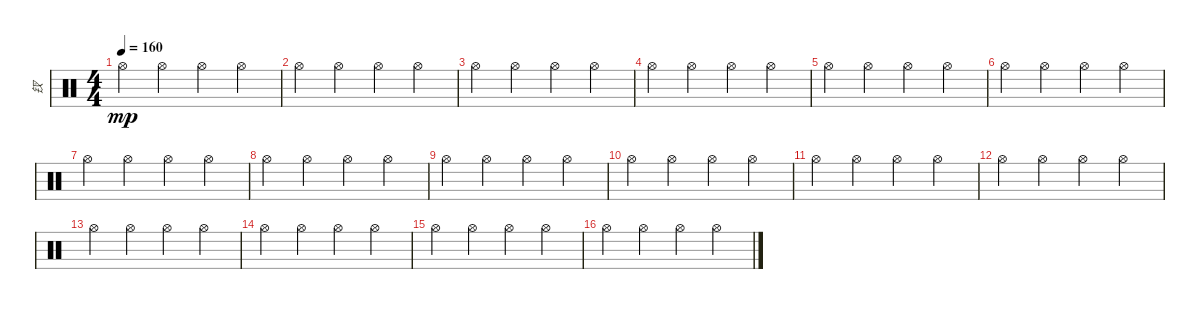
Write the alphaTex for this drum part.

\track ("钗" "钗") {instrument percussion}
\staff {score}
\articulation defaults
\ts (4 4)
\tempo 160
\clef neutral
\ks c "Hi-Hat (open)".4{dy mp} "Hi-Hat (open)".4 "Hi-Hat (open)".4 "Hi-Hat (open)".4
|
"Hi-Hat (open)".4 "Hi-Hat (open)".4 "Hi-Hat (open)".4 "Hi-Hat (open)".4 |
"Hi-Hat (open)".4 "Hi-Hat (open)".4 "Hi-Hat (open)".4 "Hi-Hat (open)".4 |
"Hi-Hat (open)".4 "Hi-Hat (open)".4 "Hi-Hat (open)".4 "Hi-Hat (open)".4 |
"Hi-Hat (open)".4 "Hi-Hat (open)".4 "Hi-Hat (open)".4 "Hi-Hat (open)".4 |
"Hi-Hat (open)".4 "Hi-Hat (open)".4 "Hi-Hat (open)".4 "Hi-Hat (open)".4 |
"Hi-Hat (open)".4 "Hi-Hat (open)".4 "Hi-Hat (open)".4 "Hi-Hat (open)".4 |
"Hi-Hat (open)".4 "Hi-Hat (open)".4 "Hi-Hat (open)".4 "Hi-Hat (open)".4 |
"Hi-Hat (open)".4 "Hi-Hat (open)".4 "Hi-Hat (open)".4 "Hi-Hat (open)".4 |
"Hi-Hat (open)".4 "Hi-Hat (open)".4 "Hi-Hat (open)".4 "Hi-Hat (open)".4 |
"Hi-Hat (open)".4 "Hi-Hat (open)".4 "Hi-Hat (open)".4 "Hi-Hat (open)".4 |
"Hi-Hat (open)".4 "Hi-Hat (open)".4 "Hi-Hat (open)".4 "Hi-Hat (open)".4 |
"Hi-Hat (open)".4 "Hi-Hat (open)".4 "Hi-Hat (open)".4 "Hi-Hat (open)".4 |
"Hi-Hat (open)".4 "Hi-Hat (open)".4 "Hi-Hat (open)".4 "Hi-Hat (open)".4 |
"Hi-Hat (open)".4 "Hi-Hat (open)".4 "Hi-Hat (open)".4 "Hi-Hat (open)".4 |
"Hi-Hat (open)".4 "Hi-Hat (open)".4 "Hi-Hat (open)".4 "Hi-Hat (open)".4
